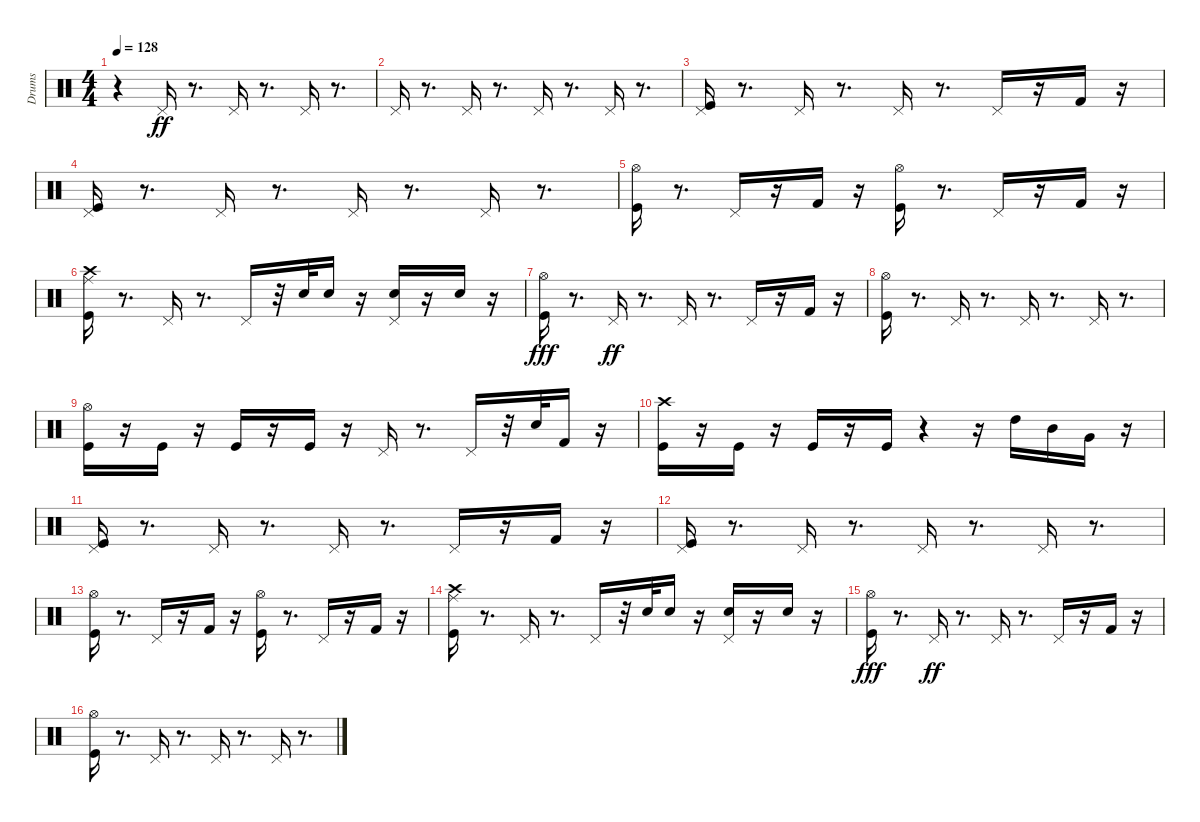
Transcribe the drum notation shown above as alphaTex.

\track ("Drums" "Drums") {instrument percussion}
\staff {score}
\articulation defaults
\ts (4 4)
\tempo 128
\clef neutral
\ks c
r.4{dy ff} "Pedal Hi-Hat (hit)".16 r.8{d} "Pedal Hi-Hat (hit)".16 r.8{d} "Pedal Hi-Hat (hit)".16 r.8{d} |
"Pedal Hi-Hat (hit)".16 r.8{d} "Pedal Hi-Hat (hit)".16 r.8{d} "Pedal Hi-Hat (hit)".16 r.8{d} "Pedal Hi-Hat (hit)".16 r.8{d} |
("Kick (hit)" "Pedal Hi-Hat (hit)").16 r.8{d} "Pedal Hi-Hat (hit)".16 r.8{d} "Pedal Hi-Hat (hit)".16 r.8{d} "Pedal Hi-Hat (hit)".16 r.16 "Kick (hit) 2".16 r.16 |
("Kick (hit)" "Pedal Hi-Hat (hit)").16 r.8{d} "Pedal Hi-Hat (hit)".16 r.8{d} "Pedal Hi-Hat (hit)".16 r.8{d} "Pedal Hi-Hat (hit)".16 r.8{d} |
("Kick (hit)" "Hi-Hat (open)").16 r.8{d} "Pedal Hi-Hat (hit)".16 r.16 "Kick (hit) 2".16 r.16 ("Kick (hit)" "Hi-Hat (open)").16 r.8{d} "Pedal Hi-Hat (hit)".16 r.16 "Kick (hit) 2".16 r.16 |
("Kick (hit)" "Crash high (hit)" "Ride (middle)").16 r.8{d} "Pedal Hi-Hat (hit)".16 r.8{d} "Pedal Hi-Hat (hit)".16 r.32 "Electric Snare (hit)".32 "Snare (hit) 2".16 r.16 ("Snare (hit) 2" "Pedal Hi-Hat (hit)").16 r.16 "Snare (hit) 2".16 r.16 |
("Kick (hit)" "Hi-Hat (open)").16{dy fff} r.8{d} "Pedal Hi-Hat (hit)".16{dy ff} r.8{d} "Pedal Hi-Hat (hit)".16 r.8{d} "Pedal Hi-Hat (hit)".16 r.16 "Kick (hit) 2".16 r.16 |
("Kick (hit)" "Hi-Hat (open)").16 r.8{d} "Pedal Hi-Hat (hit)".16 r.8{d} "Pedal Hi-Hat (hit)".16 r.8{d} "Pedal Hi-Hat (hit)".16 r.8{d} |
("Kick (hit)" "Hi-Hat (open)").16 r.16 "Kick (hit)".16 r.16 "Kick (hit)".16 r.16 "Kick (hit)".16 r.16 "Pedal Hi-Hat (hit)".16 r.8{d} "Pedal Hi-Hat (hit)".16 r.32 "Electric Snare (hit)".32 "Kick (hit) 2".16 r.16 |
("Kick (hit)" "Crash high (hit)").16 r.16 "Kick (hit)".16 r.16 "Kick (hit)".16 r.16 "Kick (hit)".16 r.4 r.16 "High Tom (hit)".16 "Mid Tom (hit)".16 "Very Low Tom (hit)".16 r.16 |
("Kick (hit)" "Pedal Hi-Hat (hit)").16 r.8{d} "Pedal Hi-Hat (hit)".16 r.8{d} "Pedal Hi-Hat (hit)".16 r.8{d} "Pedal Hi-Hat (hit)".16 r.16 "Kick (hit) 2".16 r.16 |
("Kick (hit)" "Pedal Hi-Hat (hit)").16 r.8{d} "Pedal Hi-Hat (hit)".16 r.8{d} "Pedal Hi-Hat (hit)".16 r.8{d} "Pedal Hi-Hat (hit)".16 r.8{d} |
("Kick (hit)" "Hi-Hat (open)").16 r.8{d} "Pedal Hi-Hat (hit)".16 r.16 "Kick (hit) 2".16 r.16 ("Kick (hit)" "Hi-Hat (open)").16 r.8{d} "Pedal Hi-Hat (hit)".16 r.16 "Kick (hit) 2".16 r.16 |
("Kick (hit)" "Crash high (hit)" "Ride (middle)").16 r.8{d} "Pedal Hi-Hat (hit)".16 r.8{d} "Pedal Hi-Hat (hit)".16 r.32 "Electric Snare (hit)".32 "Snare (hit) 2".16 r.16 ("Snare (hit) 2" "Pedal Hi-Hat (hit)").16 r.16 "Snare (hit) 2".16 r.16 |
("Kick (hit)" "Hi-Hat (open)").16{dy fff} r.8{d} "Pedal Hi-Hat (hit)".16{dy ff} r.8{d} "Pedal Hi-Hat (hit)".16 r.8{d} "Pedal Hi-Hat (hit)".16 r.16 "Kick (hit) 2".16 r.16 |
("Kick (hit)" "Hi-Hat (open)").16 r.8{d} "Pedal Hi-Hat (hit)".16 r.8{d} "Pedal Hi-Hat (hit)".16 r.8{d} "Pedal Hi-Hat (hit)".16 r.8{d}
